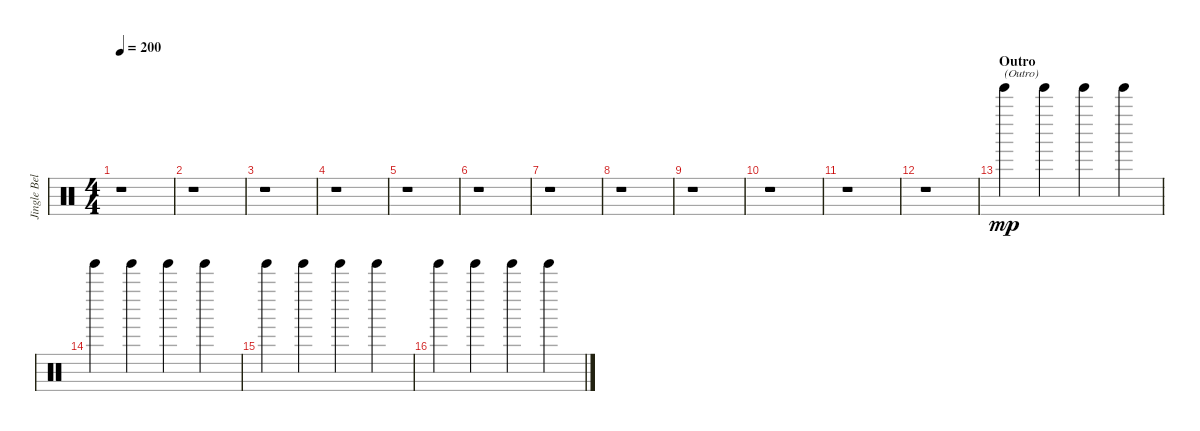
\track ("Jingle Bells" "Jingle Bel") {instrument percussion}
\staff {score}
\articulation defaults
\ts (4 4)
\tempo 200
\clef neutral
\ks c
r.1{dy mp} |
r.1 |
r.1 |
r.1 |
r.1 |
r.1 |
r.1 |
r.1 |
r.1 |
r.1 |
r.1 |
r.1 |
\section ("" "Outro")
"Tinkle Bell (hit)".4{txt "(Outro)"} "Tinkle Bell (hit)".4 "Tinkle Bell (hit)".4 "Tinkle Bell (hit)".4 |
"Tinkle Bell (hit)".4 "Tinkle Bell (hit)".4 "Tinkle Bell (hit)".4 "Tinkle Bell (hit)".4 |
"Tinkle Bell (hit)".4 "Tinkle Bell (hit)".4 "Tinkle Bell (hit)".4 "Tinkle Bell (hit)".4 |
"Tinkle Bell (hit)".4 "Tinkle Bell (hit)".4 "Tinkle Bell (hit)".4 "Tinkle Bell (hit)".4
